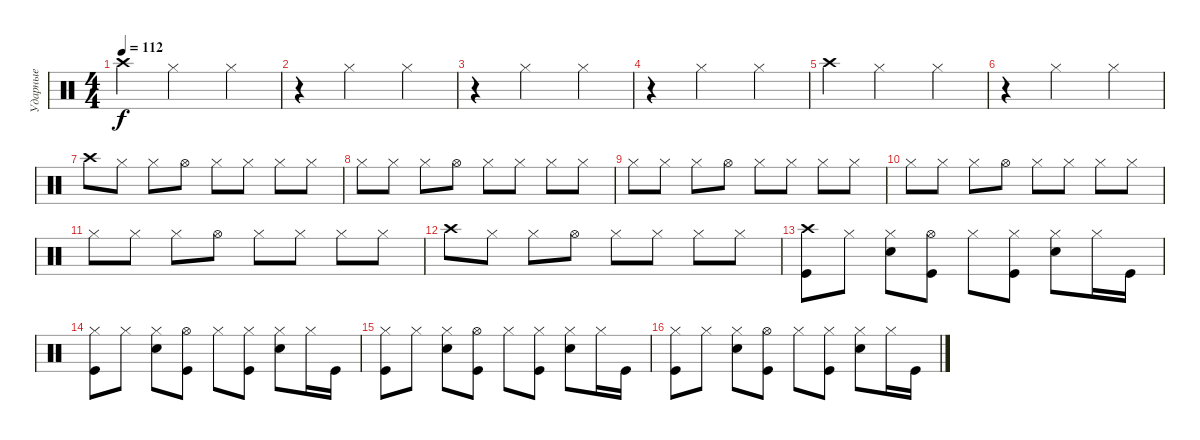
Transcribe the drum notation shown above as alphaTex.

\track ("Ударные" "Ударные") {instrument percussion}
\staff {score}
\articulation defaults
\ts (4 4)
\tempo 112
\clef neutral
\ks c "Crash high (hit)".4{dy f} "Hi-Hat (closed)".2 "Hi-Hat (closed)".4
|
r.4 "Hi-Hat (closed)".2 "Hi-Hat (closed)".4 |
r.4 "Hi-Hat (closed)".2 "Hi-Hat (closed)".4 |
r.4 "Hi-Hat (closed)".2 "Hi-Hat (closed)".4 |
"Crash high (hit)".4 "Hi-Hat (closed)".2 "Hi-Hat (closed)".4 |
r.4 "Hi-Hat (closed)".2 "Hi-Hat (closed)".4 |
"Crash high (hit)".8 "Hi-Hat (closed)".8 "Hi-Hat (closed)".8 "Hi-Hat (open)".8 "Hi-Hat (closed)".8 "Hi-Hat (closed)".8 "Hi-Hat (closed)".8 "Hi-Hat (closed)".8 |
"Hi-Hat (closed)".8 "Hi-Hat (closed)".8 "Hi-Hat (closed)".8 "Hi-Hat (open)".8 "Hi-Hat (closed)".8 "Hi-Hat (closed)".8 "Hi-Hat (closed)".8 "Hi-Hat (closed)".8 |
"Hi-Hat (closed)".8 "Hi-Hat (closed)".8 "Hi-Hat (closed)".8 "Hi-Hat (open)".8 "Hi-Hat (closed)".8 "Hi-Hat (closed)".8 "Hi-Hat (closed)".8 "Hi-Hat (closed)".8 |
"Hi-Hat (closed)".8 "Hi-Hat (closed)".8 "Hi-Hat (closed)".8 "Hi-Hat (open)".8 "Hi-Hat (closed)".8 "Hi-Hat (closed)".8 "Hi-Hat (closed)".8 "Hi-Hat (closed)".8 |
"Hi-Hat (closed)".8 "Hi-Hat (closed)".8 "Hi-Hat (closed)".8 "Hi-Hat (open)".8 "Hi-Hat (closed)".8 "Hi-Hat (closed)".8 "Hi-Hat (closed)".8 "Hi-Hat (closed)".8 |
"Crash high (hit)".8 "Hi-Hat (closed)".8 "Hi-Hat (closed)".8 "Hi-Hat (open)".8 "Hi-Hat (closed)".8 "Hi-Hat (closed)".8 "Hi-Hat (closed)".8 "Hi-Hat (closed)".8 |
("Crash high (hit)" "Kick (hit)").8 "Hi-Hat (closed)".8 ("Hi-Hat (closed)" "Electric Snare (hit)").8 ("Hi-Hat (open)" "Kick (hit)").8 "Hi-Hat (closed)".8 ("Hi-Hat (closed)" "Kick (hit)").8 ("Hi-Hat (closed)" "Electric Snare (hit)").8 "Hi-Hat (closed)".16 "Kick (hit)".16 |
("Hi-Hat (closed)" "Kick (hit)").8 "Hi-Hat (closed)".8 ("Hi-Hat (closed)" "Electric Snare (hit)").8 ("Hi-Hat (open)" "Kick (hit)").8 "Hi-Hat (closed)".8 ("Hi-Hat (closed)" "Kick (hit)").8 ("Hi-Hat (closed)" "Electric Snare (hit)").8 "Hi-Hat (closed)".16 "Kick (hit)".16 |
("Hi-Hat (closed)" "Kick (hit)").8 "Hi-Hat (closed)".8 ("Hi-Hat (closed)" "Electric Snare (hit)").8 ("Hi-Hat (open)" "Kick (hit)").8 "Hi-Hat (closed)".8 ("Hi-Hat (closed)" "Kick (hit)").8 ("Hi-Hat (closed)" "Electric Snare (hit)").8 "Hi-Hat (closed)".16 "Kick (hit)".16 |
("Hi-Hat (closed)" "Kick (hit)").8 "Hi-Hat (closed)".8 ("Hi-Hat (closed)" "Electric Snare (hit)").8 ("Hi-Hat (open)" "Kick (hit)").8 "Hi-Hat (closed)".8 ("Hi-Hat (closed)" "Kick (hit)").8 ("Hi-Hat (closed)" "Electric Snare (hit)").8 "Hi-Hat (closed)".16 "Kick (hit)".16
